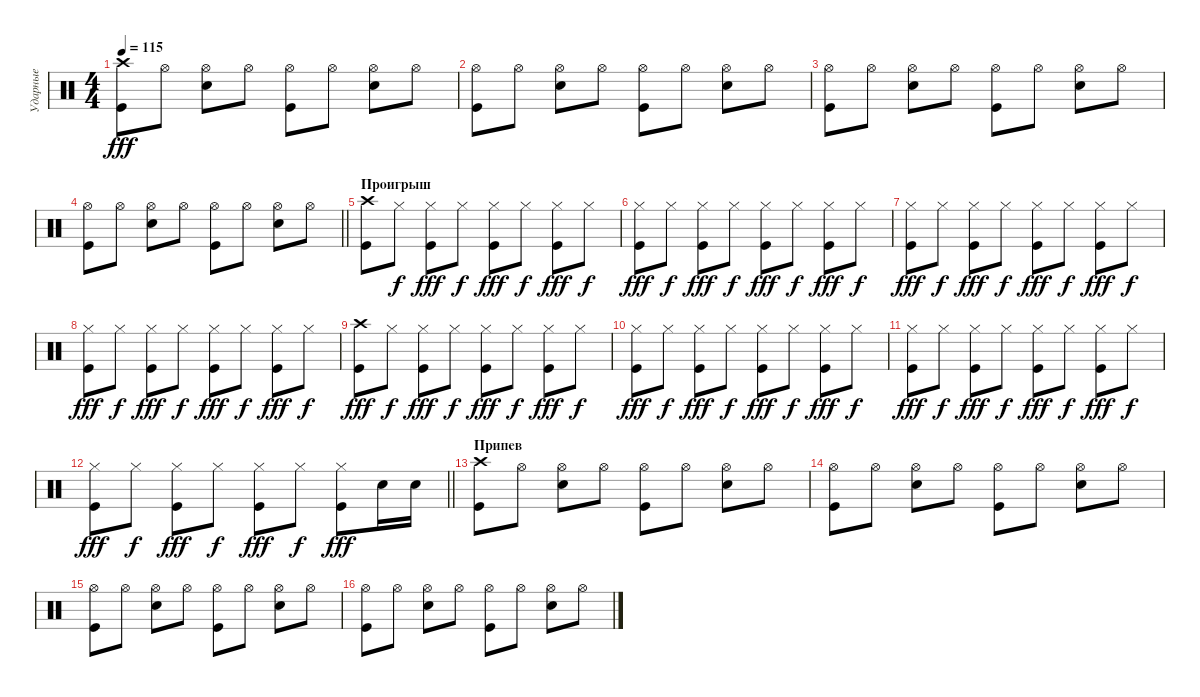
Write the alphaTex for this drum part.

\track ("Ударные" "Ударные") {instrument percussion}
\staff {score}
\articulation defaults
\ts (4 4)
\tempo 115
\clef neutral
\ks c
("Crash high (hit)" "Kick (hit)").8{dy fff} "Hi-Hat (open)".8 ("Hi-Hat (open)" "Electric Snare (hit)").8 "Hi-Hat (open)".8 ("Hi-Hat (open)" "Kick (hit)").8 "Hi-Hat (open)".8 ("Hi-Hat (open)" "Electric Snare (hit)").8 "Hi-Hat (open)".8 |
("Hi-Hat (open)" "Kick (hit)").8 "Hi-Hat (open)".8 ("Hi-Hat (open)" "Electric Snare (hit)").8 "Hi-Hat (open)".8 ("Hi-Hat (open)" "Kick (hit)").8 "Hi-Hat (open)".8 ("Hi-Hat (open)" "Electric Snare (hit)").8 "Hi-Hat (open)".8 |
("Hi-Hat (open)" "Kick (hit)").8 "Hi-Hat (open)".8 ("Hi-Hat (open)" "Electric Snare (hit)").8 "Hi-Hat (open)".8 ("Hi-Hat (open)" "Kick (hit)").8 "Hi-Hat (open)".8 ("Hi-Hat (open)" "Electric Snare (hit)").8 "Hi-Hat (open)".8 |
\barLineRight lightlight
("Hi-Hat (open)" "Kick (hit)").8 "Hi-Hat (open)".8 ("Hi-Hat (open)" "Electric Snare (hit)").8 "Hi-Hat (open)".8 ("Hi-Hat (open)" "Kick (hit)").8 "Hi-Hat (open)".8 ("Hi-Hat (open)" "Electric Snare (hit)").8 "Hi-Hat (open)".8 |
\section ("" "Проигрыш")
("Crash high (hit)" "Kick (hit)").8 "Hi-Hat (closed)".8{dy f} ("Hi-Hat (closed)" "Kick (hit)").8{dy fff} "Hi-Hat (closed)".8{dy f} ("Hi-Hat (closed)" "Kick (hit)").8{dy fff} "Hi-Hat (closed)".8{dy f} ("Hi-Hat (closed)" "Kick (hit)").8{dy fff} "Hi-Hat (closed)".8{dy f} |
("Hi-Hat (closed)" "Kick (hit)").8{dy fff} "Hi-Hat (closed)".8{dy f} ("Hi-Hat (closed)" "Kick (hit)").8{dy fff} "Hi-Hat (closed)".8{dy f} ("Hi-Hat (closed)" "Kick (hit)").8{dy fff} "Hi-Hat (closed)".8{dy f} ("Hi-Hat (closed)" "Kick (hit)").8{dy fff} "Hi-Hat (closed)".8{dy f} |
("Hi-Hat (closed)" "Kick (hit)").8{dy fff} "Hi-Hat (closed)".8{dy f} ("Hi-Hat (closed)" "Kick (hit)").8{dy fff} "Hi-Hat (closed)".8{dy f} ("Hi-Hat (closed)" "Kick (hit)").8{dy fff} "Hi-Hat (closed)".8{dy f} ("Hi-Hat (closed)" "Kick (hit)").8{dy fff} "Hi-Hat (closed)".8{dy f} |
("Hi-Hat (closed)" "Kick (hit)").8{dy fff} "Hi-Hat (closed)".8{dy f} ("Hi-Hat (closed)" "Kick (hit)").8{dy fff} "Hi-Hat (closed)".8{dy f} ("Hi-Hat (closed)" "Kick (hit)").8{dy fff} "Hi-Hat (closed)".8{dy f} ("Hi-Hat (closed)" "Kick (hit)").8{dy fff} "Hi-Hat (closed)".8{dy f} |
("Crash high (hit)" "Kick (hit)").8{dy fff} "Hi-Hat (closed)".8{dy f} ("Hi-Hat (closed)" "Kick (hit)").8{dy fff} "Hi-Hat (closed)".8{dy f} ("Hi-Hat (closed)" "Kick (hit)").8{dy fff} "Hi-Hat (closed)".8{dy f} ("Hi-Hat (closed)" "Kick (hit)").8{dy fff} "Hi-Hat (closed)".8{dy f} |
("Hi-Hat (closed)" "Kick (hit)").8{dy fff} "Hi-Hat (closed)".8{dy f} ("Hi-Hat (closed)" "Kick (hit)").8{dy fff} "Hi-Hat (closed)".8{dy f} ("Hi-Hat (closed)" "Kick (hit)").8{dy fff} "Hi-Hat (closed)".8{dy f} ("Hi-Hat (closed)" "Kick (hit)").8{dy fff} "Hi-Hat (closed)".8{dy f} |
("Hi-Hat (closed)" "Kick (hit)").8{dy fff} "Hi-Hat (closed)".8{dy f} ("Hi-Hat (closed)" "Kick (hit)").8{dy fff} "Hi-Hat (closed)".8{dy f} ("Hi-Hat (closed)" "Kick (hit)").8{dy fff} "Hi-Hat (closed)".8{dy f} ("Hi-Hat (closed)" "Kick (hit)").8{dy fff} "Hi-Hat (closed)".8{dy f} |
\barLineRight lightlight
("Hi-Hat (closed)" "Kick (hit)").8{dy fff} "Hi-Hat (closed)".8{dy f} ("Hi-Hat (closed)" "Kick (hit)").8{dy fff} "Hi-Hat (closed)".8{dy f} ("Hi-Hat (closed)" "Kick (hit)").8{dy fff} "Hi-Hat (closed)".8{dy f} ("Hi-Hat (closed)" "Kick (hit)").8{dy fff} "Electric Snare (hit)".16 "Electric Snare (hit)".16 |
\section ("" "Припев")
("Crash high (hit)" "Kick (hit)").8 "Hi-Hat (open)".8 ("Hi-Hat (open)" "Electric Snare (hit)").8 "Hi-Hat (open)".8 ("Hi-Hat (open)" "Kick (hit)").8 "Hi-Hat (open)".8 ("Hi-Hat (open)" "Electric Snare (hit)").8 "Hi-Hat (open)".8 |
("Hi-Hat (open)" "Kick (hit)").8 "Hi-Hat (open)".8 ("Hi-Hat (open)" "Electric Snare (hit)").8 "Hi-Hat (open)".8 ("Hi-Hat (open)" "Kick (hit)").8 "Hi-Hat (open)".8 ("Hi-Hat (open)" "Electric Snare (hit)").8 "Hi-Hat (open)".8 |
("Hi-Hat (open)" "Kick (hit)").8 "Hi-Hat (open)".8 ("Hi-Hat (open)" "Electric Snare (hit)").8 "Hi-Hat (open)".8 ("Hi-Hat (open)" "Kick (hit)").8 "Hi-Hat (open)".8 ("Hi-Hat (open)" "Electric Snare (hit)").8 "Hi-Hat (open)".8 |
("Hi-Hat (open)" "Kick (hit)").8 "Hi-Hat (open)".8 ("Hi-Hat (open)" "Electric Snare (hit)").8 "Hi-Hat (open)".8 ("Hi-Hat (open)" "Kick (hit)").8 "Hi-Hat (open)".8 ("Hi-Hat (open)" "Electric Snare (hit)").8 "Hi-Hat (open)".8
